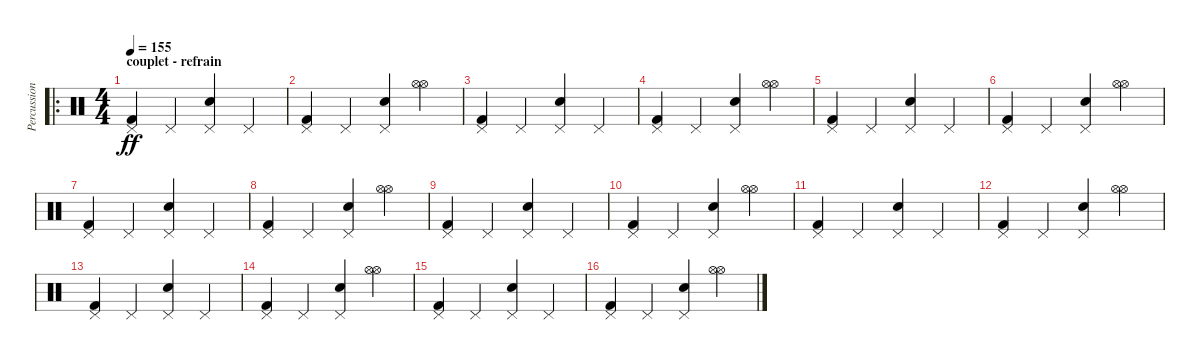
\track ("Percussions" "Percussion") {instrument percussion}
\staff {score}
\articulation defaults
\ro
\ts (4 4)
\section ("" "couplet - refrain")
\tempo 155
\clef neutral
\ks c
("Pedal Hi-Hat (hit)" "Kick (hit) 2").4{dy ff} "Pedal Hi-Hat (hit)".4 ("Pedal Hi-Hat (hit)" "Electric Snare (hit)").4 "Pedal Hi-Hat (hit)".4 |
("Pedal Hi-Hat (hit)" "Kick (hit) 2").4 "Pedal Hi-Hat (hit)".4 ("Pedal Hi-Hat (hit)" "Electric Snare (hit)").4 ("Hi-Hat (open)" "Hi-Hat (open)").4 |
("Pedal Hi-Hat (hit)" "Kick (hit) 2").4 "Pedal Hi-Hat (hit)".4 ("Pedal Hi-Hat (hit)" "Electric Snare (hit)").4 "Pedal Hi-Hat (hit)".4 |
("Pedal Hi-Hat (hit)" "Kick (hit) 2").4 "Pedal Hi-Hat (hit)".4 ("Pedal Hi-Hat (hit)" "Electric Snare (hit)").4 ("Hi-Hat (open)" "Hi-Hat (open)").4 |
("Pedal Hi-Hat (hit)" "Kick (hit) 2").4 "Pedal Hi-Hat (hit)".4 ("Pedal Hi-Hat (hit)" "Electric Snare (hit)").4 "Pedal Hi-Hat (hit)".4 |
("Pedal Hi-Hat (hit)" "Kick (hit) 2").4 "Pedal Hi-Hat (hit)".4 ("Pedal Hi-Hat (hit)" "Electric Snare (hit)").4 ("Hi-Hat (open)" "Hi-Hat (open)").4 |
("Pedal Hi-Hat (hit)" "Kick (hit) 2").4 "Pedal Hi-Hat (hit)".4 ("Pedal Hi-Hat (hit)" "Electric Snare (hit)").4 "Pedal Hi-Hat (hit)".4 |
("Pedal Hi-Hat (hit)" "Kick (hit) 2").4 "Pedal Hi-Hat (hit)".4 ("Pedal Hi-Hat (hit)" "Electric Snare (hit)").4 ("Hi-Hat (open)" "Hi-Hat (open)").4 |
("Pedal Hi-Hat (hit)" "Kick (hit) 2").4 "Pedal Hi-Hat (hit)".4 ("Pedal Hi-Hat (hit)" "Electric Snare (hit)").4 "Pedal Hi-Hat (hit)".4 |
("Pedal Hi-Hat (hit)" "Kick (hit) 2").4 "Pedal Hi-Hat (hit)".4 ("Pedal Hi-Hat (hit)" "Electric Snare (hit)").4 ("Hi-Hat (open)" "Hi-Hat (open)").4 |
("Pedal Hi-Hat (hit)" "Kick (hit) 2").4 "Pedal Hi-Hat (hit)".4 ("Pedal Hi-Hat (hit)" "Electric Snare (hit)").4 "Pedal Hi-Hat (hit)".4 |
("Pedal Hi-Hat (hit)" "Kick (hit) 2").4 "Pedal Hi-Hat (hit)".4 ("Pedal Hi-Hat (hit)" "Electric Snare (hit)").4 ("Hi-Hat (open)" "Hi-Hat (open)").4 |
("Pedal Hi-Hat (hit)" "Kick (hit) 2").4 "Pedal Hi-Hat (hit)".4 ("Pedal Hi-Hat (hit)" "Electric Snare (hit)").4 "Pedal Hi-Hat (hit)".4 |
("Pedal Hi-Hat (hit)" "Kick (hit) 2").4 "Pedal Hi-Hat (hit)".4 ("Pedal Hi-Hat (hit)" "Electric Snare (hit)").4 ("Hi-Hat (open)" "Hi-Hat (open)").4 |
("Pedal Hi-Hat (hit)" "Kick (hit) 2").4 "Pedal Hi-Hat (hit)".4 ("Pedal Hi-Hat (hit)" "Electric Snare (hit)").4 "Pedal Hi-Hat (hit)".4 |
("Pedal Hi-Hat (hit)" "Kick (hit) 2").4 "Pedal Hi-Hat (hit)".4 ("Pedal Hi-Hat (hit)" "Electric Snare (hit)").4 ("Hi-Hat (open)" "Hi-Hat (open)").4
